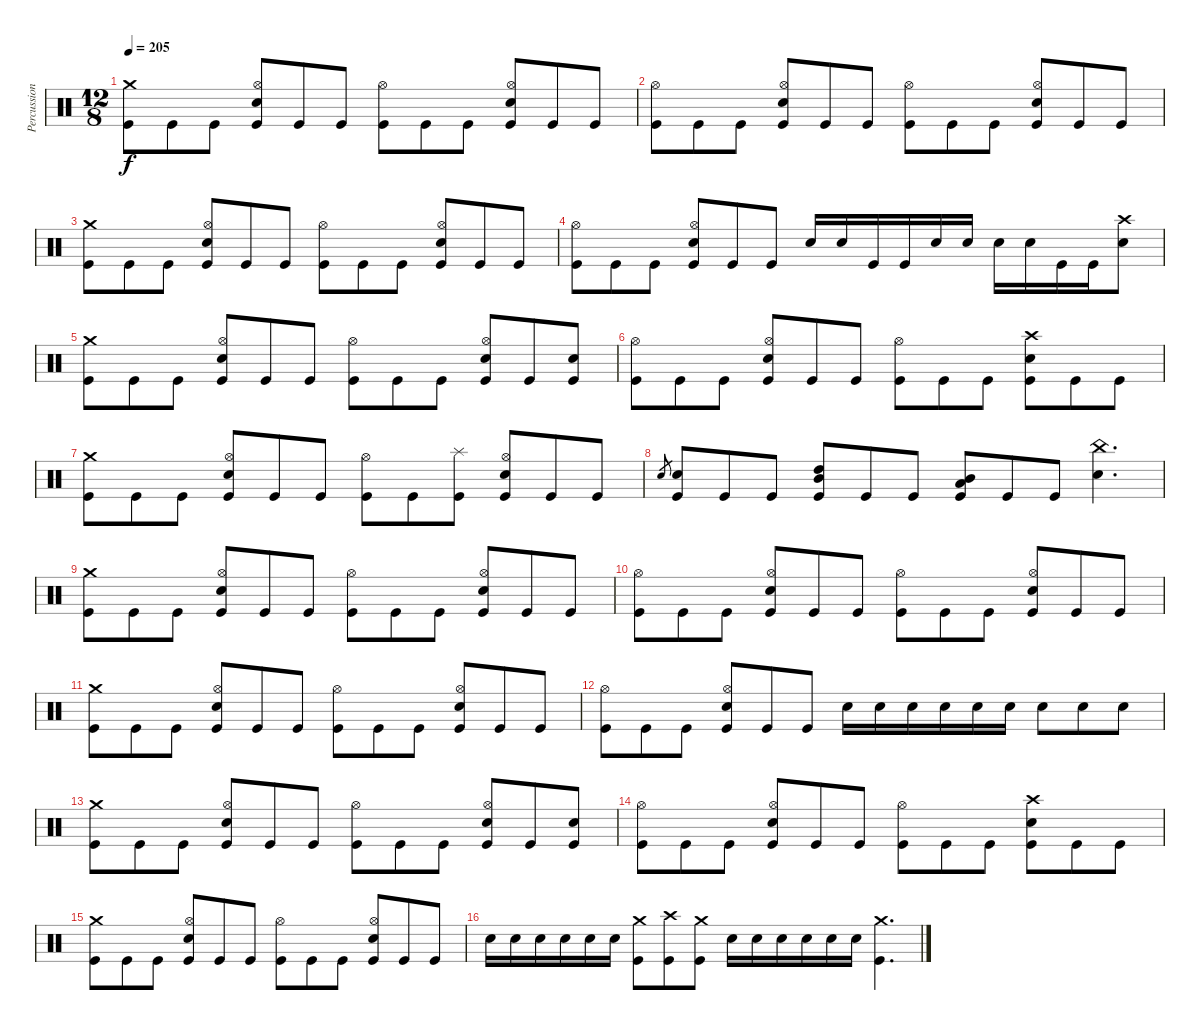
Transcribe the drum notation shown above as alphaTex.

\track ("Percussion" "Percussion") {instrument percussion}
\staff {score}
\articulation defaults
\ts (12 8)
\tempo 205
\clef neutral
\ks c
("Crash medium (hit)" "Kick (hit)").8{dy f} "Kick (hit)".8 "Kick (hit)".8 ("Hi-Hat (open)" "Snare (hit) 2" "Kick (hit)").8 "Kick (hit)".8 "Kick (hit)".8 ("Hi-Hat (open)" "Kick (hit)").8 "Kick (hit)".8 "Kick (hit)".8 ("Hi-Hat (open)" "Snare (hit) 2" "Kick (hit)").8 "Kick (hit)".8 "Kick (hit)".8 |
("Hi-Hat (open)" "Kick (hit)").8 "Kick (hit)".8 "Kick (hit)".8 ("Hi-Hat (open)" "Snare (hit) 2" "Kick (hit)").8 "Kick (hit)".8 "Kick (hit)".8 ("Hi-Hat (open)" "Kick (hit)").8 "Kick (hit)".8 "Kick (hit)".8 ("Hi-Hat (open)" "Snare (hit) 2" "Kick (hit)").8 "Kick (hit)".8 "Kick (hit)".8 |
("Crash medium (hit)" "Kick (hit)").8 "Kick (hit)".8 "Kick (hit)".8 ("Hi-Hat (open)" "Snare (hit) 2" "Kick (hit)").8 "Kick (hit)".8 "Kick (hit)".8 ("Hi-Hat (open)" "Kick (hit)").8 "Kick (hit)".8 "Kick (hit)".8 ("Hi-Hat (open)" "Snare (hit) 2" "Kick (hit)").8 "Kick (hit)".8 "Kick (hit)".8 |
("Hi-Hat (open)" "Kick (hit)").8 "Kick (hit)".8 "Kick (hit)".8 ("Hi-Hat (open)" "Snare (hit) 2" "Kick (hit)").8 "Kick (hit)".8 "Kick (hit)".8 "Snare (hit) 2".16 "Snare (hit) 2".16 "Kick (hit)".16 "Kick (hit)".16 "Snare (hit) 2".16 "Snare (hit) 2".16 "Snare (hit) 2".16 "Snare (hit) 2".16 "Kick (hit)".16 "Kick (hit)".16 ("Crash high (hit)" "Snare (hit) 2").8 |
("Crash medium (hit)" "Kick (hit)").8 "Kick (hit)".8 "Kick (hit)".8 ("Hi-Hat (open)" "Snare (hit) 2" "Kick (hit)").8 "Kick (hit)".8 "Kick (hit)".8 ("Hi-Hat (open)" "Kick (hit)").8 "Kick (hit)".8 "Kick (hit)".8 ("Hi-Hat (open)" "Snare (hit) 2" "Kick (hit)").8 "Kick (hit)".8 ("Snare (hit) 2" "Kick (hit)").8 |
("Hi-Hat (open)" "Kick (hit)").8 "Kick (hit)".8 "Kick (hit)".8 ("Hi-Hat (open)" "Snare (hit) 2" "Kick (hit)").8 "Kick (hit)".8 "Kick (hit)".8 ("Hi-Hat (open)" "Kick (hit)").8 "Kick (hit)".8 "Kick (hit)".8 ("Crash high (hit)" "Snare (hit) 2" "Kick (hit)").8 "Kick (hit)".8 "Kick (hit)".8 |
("Crash medium (hit)" "Kick (hit)").8 "Kick (hit)".8 "Kick (hit)".8 ("Hi-Hat (open)" "Snare (hit) 2" "Kick (hit)").8 "Kick (hit)".8 "Kick (hit)".8 ("Hi-Hat (open)" "Kick (hit)").8 "Kick (hit)".8 ("Splash (hit)" "Kick (hit)").8 ("Hi-Hat (open)" "Snare (hit) 2" "Kick (hit)").8 "Kick (hit)".8 "Kick (hit)".8 |
"Snare (hit) 2".8{gr} ("Snare (hit) 2" "Kick (hit)").8 "Kick (hit)".8 "Kick (hit)".8 ("High Tom (hit)" "Mid Tom (hit)" "Kick (hit)").8 "Kick (hit)".8 "Kick (hit)".8 ("Mid Tom (hit)" "Low Tom (hit)" "Kick (hit)").8 "Kick (hit)".8 "Kick (hit)".8 ("China (hit)" "Snare (hit) 2").4{d} |
("Crash medium (hit)" "Kick (hit)").8 "Kick (hit)".8 "Kick (hit)".8 ("Hi-Hat (open)" "Snare (hit) 2" "Kick (hit)").8 "Kick (hit)".8 "Kick (hit)".8 ("Hi-Hat (open)" "Kick (hit)").8 "Kick (hit)".8 "Kick (hit)".8 ("Hi-Hat (open)" "Snare (hit) 2" "Kick (hit)").8 "Kick (hit)".8 "Kick (hit)".8 |
("Hi-Hat (open)" "Kick (hit)").8 "Kick (hit)".8 "Kick (hit)".8 ("Hi-Hat (open)" "Snare (hit) 2" "Kick (hit)").8 "Kick (hit)".8 "Kick (hit)".8 ("Hi-Hat (open)" "Kick (hit)").8 "Kick (hit)".8 "Kick (hit)".8 ("Hi-Hat (open)" "Snare (hit) 2" "Kick (hit)").8 "Kick (hit)".8 "Kick (hit)".8 |
("Crash medium (hit)" "Kick (hit)").8 "Kick (hit)".8 "Kick (hit)".8 ("Hi-Hat (open)" "Snare (hit) 2" "Kick (hit)").8 "Kick (hit)".8 "Kick (hit)".8 ("Hi-Hat (open)" "Kick (hit)").8 "Kick (hit)".8 "Kick (hit)".8 ("Hi-Hat (open)" "Snare (hit) 2" "Kick (hit)").8 "Kick (hit)".8 "Kick (hit)".8 |
("Hi-Hat (open)" "Kick (hit)").8 "Kick (hit)".8 "Kick (hit)".8 ("Hi-Hat (open)" "Snare (hit) 2" "Kick (hit)").8 "Kick (hit)".8 "Kick (hit)".8 "Snare (hit) 2".16 "Snare (hit) 2".16 "Snare (hit) 2".16 "Snare (hit) 2".16 "Snare (hit) 2".16 "Snare (hit) 2".16 "Snare (hit) 2".8 "Snare (hit) 2".8 "Snare (hit) 2".8 |
("Crash medium (hit)" "Kick (hit)").8 "Kick (hit)".8 "Kick (hit)".8 ("Hi-Hat (open)" "Snare (hit) 2" "Kick (hit)").8 "Kick (hit)".8 "Kick (hit)".8 ("Hi-Hat (open)" "Kick (hit)").8 "Kick (hit)".8 "Kick (hit)".8 ("Hi-Hat (open)" "Snare (hit) 2" "Kick (hit)").8 "Kick (hit)".8 ("Snare (hit) 2" "Kick (hit)").8 |
("Hi-Hat (open)" "Kick (hit)").8 "Kick (hit)".8 "Kick (hit)".8 ("Hi-Hat (open)" "Snare (hit) 2" "Kick (hit)").8 "Kick (hit)".8 "Kick (hit)".8 ("Hi-Hat (open)" "Kick (hit)").8 "Kick (hit)".8 "Kick (hit)".8 ("Crash high (hit)" "Snare (hit) 2" "Kick (hit)").8 "Kick (hit)".8 "Kick (hit)".8 |
("Crash medium (hit)" "Kick (hit)").8 "Kick (hit)".8 "Kick (hit)".8 ("Hi-Hat (open)" "Snare (hit) 2" "Kick (hit)").8 "Kick (hit)".8 "Kick (hit)".8 ("Hi-Hat (open)" "Kick (hit)").8 "Kick (hit)".8 "Kick (hit)".8 ("Hi-Hat (open)" "Snare (hit) 2" "Kick (hit)").8 "Kick (hit)".8 "Kick (hit)".8 |
"Snare (hit) 2".16 "Snare (hit) 2".16 "Snare (hit) 2".16 "Snare (hit) 2".16 "Snare (hit) 2".16 "Snare (hit) 2".16 ("Crash medium (hit)" "Kick (hit)").8 ("Crash high (hit)" "Kick (hit)").8 ("Crash medium (hit)" "Kick (hit)").8 "Snare (hit) 2".16 "Snare (hit) 2".16 "Snare (hit) 2".16 "Snare (hit) 2".16 "Snare (hit) 2".16 "Snare (hit) 2".16 ("Crash medium (hit)" "Kick (hit)").4{d}
